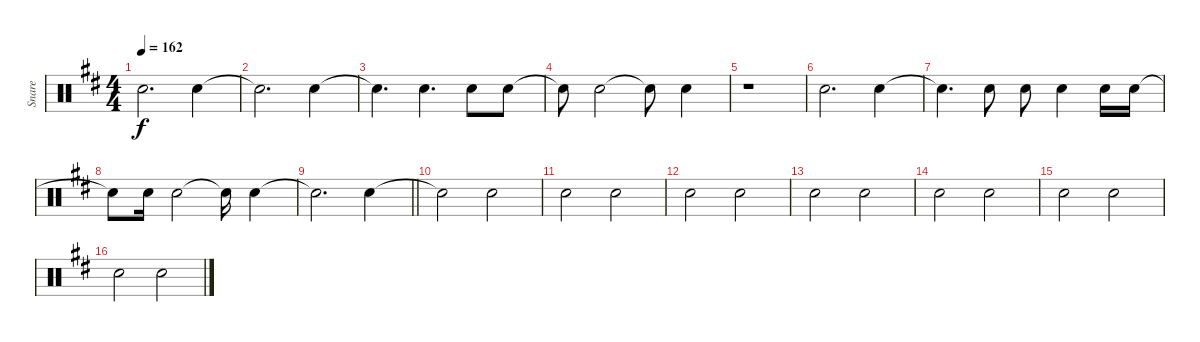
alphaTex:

\track ("Snare" "Snare") {instrument percussion}
\staff {score}
\articulation defaults
\ts (4 4)
\tempo 162
\clef neutral
\ks bminor "Electric Snare (hit)".2{d dy f} "Electric Snare (hit)".4
|
"Electric Snare (hit)"{t}.2{d} "Electric Snare (hit)".4 |
"Electric Snare (hit)"{t}.4{d} "Electric Snare (hit)".4{d} "Electric Snare (hit)".8 "Electric Snare (hit)".8 |
"Electric Snare (hit)"{t}.8 "Electric Snare (hit)".2 "Electric Snare (hit)"{t}.8 "Electric Snare (hit)".4 |
r.1 |
"Electric Snare (hit)".2{d} "Electric Snare (hit)".4 |
"Electric Snare (hit)"{t}.4{d} "Electric Snare (hit)".8 "Electric Snare (hit)".8 "Electric Snare (hit)".4 "Electric Snare (hit)".16 "Electric Snare (hit)".16 |
"Electric Snare (hit)"{t}.8 "Electric Snare (hit)".16 "Electric Snare (hit)".2 "Electric Snare (hit)"{t}.16 "Electric Snare (hit)".4 |
\barLineRight lightlight "Electric Snare (hit)"{t}.2{d} "Electric Snare (hit)".4
|
"Electric Snare (hit)"{t}.2 "Electric Snare (hit)".2 |
"Electric Snare (hit)".2 "Electric Snare (hit)".2 |
"Electric Snare (hit)".2 "Electric Snare (hit)".2 |
"Electric Snare (hit)".2 "Electric Snare (hit)".2 |
"Electric Snare (hit)".2 "Electric Snare (hit)".2 |
"Electric Snare (hit)".2 "Electric Snare (hit)".2 |
"Electric Snare (hit)".2 "Electric Snare (hit)".2
